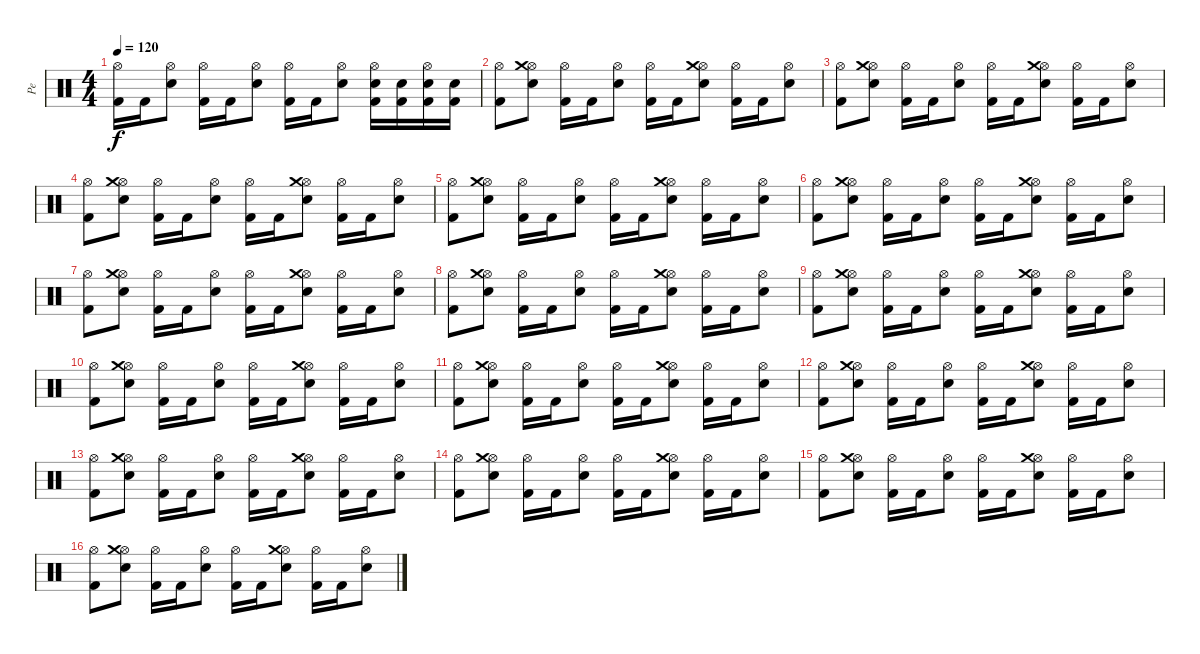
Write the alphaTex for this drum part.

\track ("Pe" "Pe") {instrument percussion}
\staff {score}
\articulation defaults
\ts (4 4)
\tempo 120
\clef neutral
\ks c
("Hi-Hat (open)" "Kick (hit) 2").16{dy f} "Kick (hit) 2".16 ("Hi-Hat (open)" "Electric Snare (hit)").8 ("Hi-Hat (open)" "Kick (hit) 2").16 "Kick (hit) 2".16 ("Hi-Hat (open)" "Electric Snare (hit)").8 ("Hi-Hat (open)" "Kick (hit) 2").16 "Kick (hit) 2".16 ("Hi-Hat (open)" "Electric Snare (hit)").8 ("Hi-Hat (open)" "Electric Snare (hit)" "Kick (hit) 2").16 ("Electric Snare (hit)" "Kick (hit) 2").16 ("Hi-Hat (open)" "Electric Snare (hit)" "Kick (hit) 2").16 ("Electric Snare (hit)" "Kick (hit) 2").16 |
("Hi-Hat (open)" "Kick (hit) 2").8 ("Hi-Hat (open)" "Crash medium (hit)" "Electric Snare (hit)").8 ("Hi-Hat (open)" "Kick (hit) 2").16 "Kick (hit) 2".16 ("Hi-Hat (open)" "Electric Snare (hit)").8 ("Hi-Hat (open)" "Kick (hit) 2").16 "Kick (hit) 2".16 ("Hi-Hat (open)" "Crash medium (hit)" "Electric Snare (hit)").8 ("Hi-Hat (open)" "Kick (hit) 2").16 "Kick (hit) 2".16 ("Hi-Hat (open)" "Electric Snare (hit)").8 |
("Hi-Hat (open)" "Kick (hit) 2").8 ("Hi-Hat (open)" "Crash medium (hit)" "Electric Snare (hit)").8 ("Hi-Hat (open)" "Kick (hit) 2").16 "Kick (hit) 2".16 ("Hi-Hat (open)" "Electric Snare (hit)").8 ("Hi-Hat (open)" "Kick (hit) 2").16 "Kick (hit) 2".16 ("Hi-Hat (open)" "Crash medium (hit)" "Electric Snare (hit)").8 ("Hi-Hat (open)" "Kick (hit) 2").16 "Kick (hit) 2".16 ("Hi-Hat (open)" "Electric Snare (hit)").8 |
("Hi-Hat (open)" "Kick (hit) 2").8 ("Hi-Hat (open)" "Crash medium (hit)" "Electric Snare (hit)").8 ("Hi-Hat (open)" "Kick (hit) 2").16 "Kick (hit) 2".16 ("Hi-Hat (open)" "Electric Snare (hit)").8 ("Hi-Hat (open)" "Kick (hit) 2").16 "Kick (hit) 2".16 ("Hi-Hat (open)" "Crash medium (hit)" "Electric Snare (hit)").8 ("Hi-Hat (open)" "Kick (hit) 2").16 "Kick (hit) 2".16 ("Hi-Hat (open)" "Electric Snare (hit)").8 |
("Hi-Hat (open)" "Kick (hit) 2").8 ("Hi-Hat (open)" "Crash medium (hit)" "Electric Snare (hit)").8 ("Hi-Hat (open)" "Kick (hit) 2").16 "Kick (hit) 2".16 ("Hi-Hat (open)" "Electric Snare (hit)").8 ("Hi-Hat (open)" "Kick (hit) 2").16 "Kick (hit) 2".16 ("Hi-Hat (open)" "Crash medium (hit)" "Electric Snare (hit)").8 ("Hi-Hat (open)" "Kick (hit) 2").16 "Kick (hit) 2".16 ("Hi-Hat (open)" "Electric Snare (hit)").8 |
("Hi-Hat (open)" "Kick (hit) 2").8 ("Hi-Hat (open)" "Crash medium (hit)" "Electric Snare (hit)").8 ("Hi-Hat (open)" "Kick (hit) 2").16 "Kick (hit) 2".16 ("Hi-Hat (open)" "Electric Snare (hit)").8 ("Hi-Hat (open)" "Kick (hit) 2").16 "Kick (hit) 2".16 ("Hi-Hat (open)" "Crash medium (hit)" "Electric Snare (hit)").8 ("Hi-Hat (open)" "Kick (hit) 2").16 "Kick (hit) 2".16 ("Hi-Hat (open)" "Electric Snare (hit)").8 |
("Hi-Hat (open)" "Kick (hit) 2").8 ("Hi-Hat (open)" "Crash medium (hit)" "Electric Snare (hit)").8 ("Hi-Hat (open)" "Kick (hit) 2").16 "Kick (hit) 2".16 ("Hi-Hat (open)" "Electric Snare (hit)").8 ("Hi-Hat (open)" "Kick (hit) 2").16 "Kick (hit) 2".16 ("Hi-Hat (open)" "Crash medium (hit)" "Electric Snare (hit)").8 ("Hi-Hat (open)" "Kick (hit) 2").16 "Kick (hit) 2".16 ("Hi-Hat (open)" "Electric Snare (hit)").8 |
("Hi-Hat (open)" "Kick (hit) 2").8 ("Hi-Hat (open)" "Crash medium (hit)" "Electric Snare (hit)").8 ("Hi-Hat (open)" "Kick (hit) 2").16 "Kick (hit) 2".16 ("Hi-Hat (open)" "Electric Snare (hit)").8 ("Hi-Hat (open)" "Kick (hit) 2").16 "Kick (hit) 2".16 ("Hi-Hat (open)" "Crash medium (hit)" "Electric Snare (hit)").8 ("Hi-Hat (open)" "Kick (hit) 2").16 "Kick (hit) 2".16 ("Hi-Hat (open)" "Electric Snare (hit)").8 |
("Hi-Hat (open)" "Kick (hit) 2").8 ("Hi-Hat (open)" "Crash medium (hit)" "Electric Snare (hit)").8 ("Hi-Hat (open)" "Kick (hit) 2").16 "Kick (hit) 2".16 ("Hi-Hat (open)" "Electric Snare (hit)").8 ("Hi-Hat (open)" "Kick (hit) 2").16 "Kick (hit) 2".16 ("Hi-Hat (open)" "Crash medium (hit)" "Electric Snare (hit)").8 ("Hi-Hat (open)" "Kick (hit) 2").16 "Kick (hit) 2".16 ("Hi-Hat (open)" "Electric Snare (hit)").8 |
("Hi-Hat (open)" "Kick (hit) 2").8 ("Hi-Hat (open)" "Crash medium (hit)" "Electric Snare (hit)").8 ("Hi-Hat (open)" "Kick (hit) 2").16 "Kick (hit) 2".16 ("Hi-Hat (open)" "Electric Snare (hit)").8 ("Hi-Hat (open)" "Kick (hit) 2").16 "Kick (hit) 2".16 ("Hi-Hat (open)" "Crash medium (hit)" "Electric Snare (hit)").8 ("Hi-Hat (open)" "Kick (hit) 2").16 "Kick (hit) 2".16 ("Hi-Hat (open)" "Electric Snare (hit)").8 |
("Hi-Hat (open)" "Kick (hit) 2").8 ("Hi-Hat (open)" "Crash medium (hit)" "Electric Snare (hit)").8 ("Hi-Hat (open)" "Kick (hit) 2").16 "Kick (hit) 2".16 ("Hi-Hat (open)" "Electric Snare (hit)").8 ("Hi-Hat (open)" "Kick (hit) 2").16 "Kick (hit) 2".16 ("Hi-Hat (open)" "Crash medium (hit)" "Electric Snare (hit)").8 ("Hi-Hat (open)" "Kick (hit) 2").16 "Kick (hit) 2".16 ("Hi-Hat (open)" "Electric Snare (hit)").8 |
("Hi-Hat (open)" "Kick (hit) 2").8 ("Hi-Hat (open)" "Crash medium (hit)" "Electric Snare (hit)").8 ("Hi-Hat (open)" "Kick (hit) 2").16 "Kick (hit) 2".16 ("Hi-Hat (open)" "Electric Snare (hit)").8 ("Hi-Hat (open)" "Kick (hit) 2").16 "Kick (hit) 2".16 ("Hi-Hat (open)" "Crash medium (hit)" "Electric Snare (hit)").8 ("Hi-Hat (open)" "Kick (hit) 2").16 "Kick (hit) 2".16 ("Hi-Hat (open)" "Electric Snare (hit)").8 |
("Hi-Hat (open)" "Kick (hit) 2").8 ("Hi-Hat (open)" "Crash medium (hit)" "Electric Snare (hit)").8 ("Hi-Hat (open)" "Kick (hit) 2").16 "Kick (hit) 2".16 ("Hi-Hat (open)" "Electric Snare (hit)").8 ("Hi-Hat (open)" "Kick (hit) 2").16 "Kick (hit) 2".16 ("Hi-Hat (open)" "Crash medium (hit)" "Electric Snare (hit)").8 ("Hi-Hat (open)" "Kick (hit) 2").16 "Kick (hit) 2".16 ("Hi-Hat (open)" "Electric Snare (hit)").8 |
("Hi-Hat (open)" "Kick (hit) 2").8 ("Hi-Hat (open)" "Crash medium (hit)" "Electric Snare (hit)").8 ("Hi-Hat (open)" "Kick (hit) 2").16 "Kick (hit) 2".16 ("Hi-Hat (open)" "Electric Snare (hit)").8 ("Hi-Hat (open)" "Kick (hit) 2").16 "Kick (hit) 2".16 ("Hi-Hat (open)" "Crash medium (hit)" "Electric Snare (hit)").8 ("Hi-Hat (open)" "Kick (hit) 2").16 "Kick (hit) 2".16 ("Hi-Hat (open)" "Electric Snare (hit)").8 |
("Hi-Hat (open)" "Kick (hit) 2").8 ("Hi-Hat (open)" "Crash medium (hit)" "Electric Snare (hit)").8 ("Hi-Hat (open)" "Kick (hit) 2").16 "Kick (hit) 2".16 ("Hi-Hat (open)" "Electric Snare (hit)").8 ("Hi-Hat (open)" "Kick (hit) 2").16 "Kick (hit) 2".16 ("Hi-Hat (open)" "Crash medium (hit)" "Electric Snare (hit)").8 ("Hi-Hat (open)" "Kick (hit) 2").16 "Kick (hit) 2".16 ("Hi-Hat (open)" "Electric Snare (hit)").8 |
("Hi-Hat (open)" "Kick (hit) 2").8 ("Hi-Hat (open)" "Crash medium (hit)" "Electric Snare (hit)").8 ("Hi-Hat (open)" "Kick (hit) 2").16 "Kick (hit) 2".16 ("Hi-Hat (open)" "Electric Snare (hit)").8 ("Hi-Hat (open)" "Kick (hit) 2").16 "Kick (hit) 2".16 ("Hi-Hat (open)" "Crash medium (hit)" "Electric Snare (hit)").8 ("Hi-Hat (open)" "Kick (hit) 2").16 "Kick (hit) 2".16 ("Hi-Hat (open)" "Electric Snare (hit)").8
